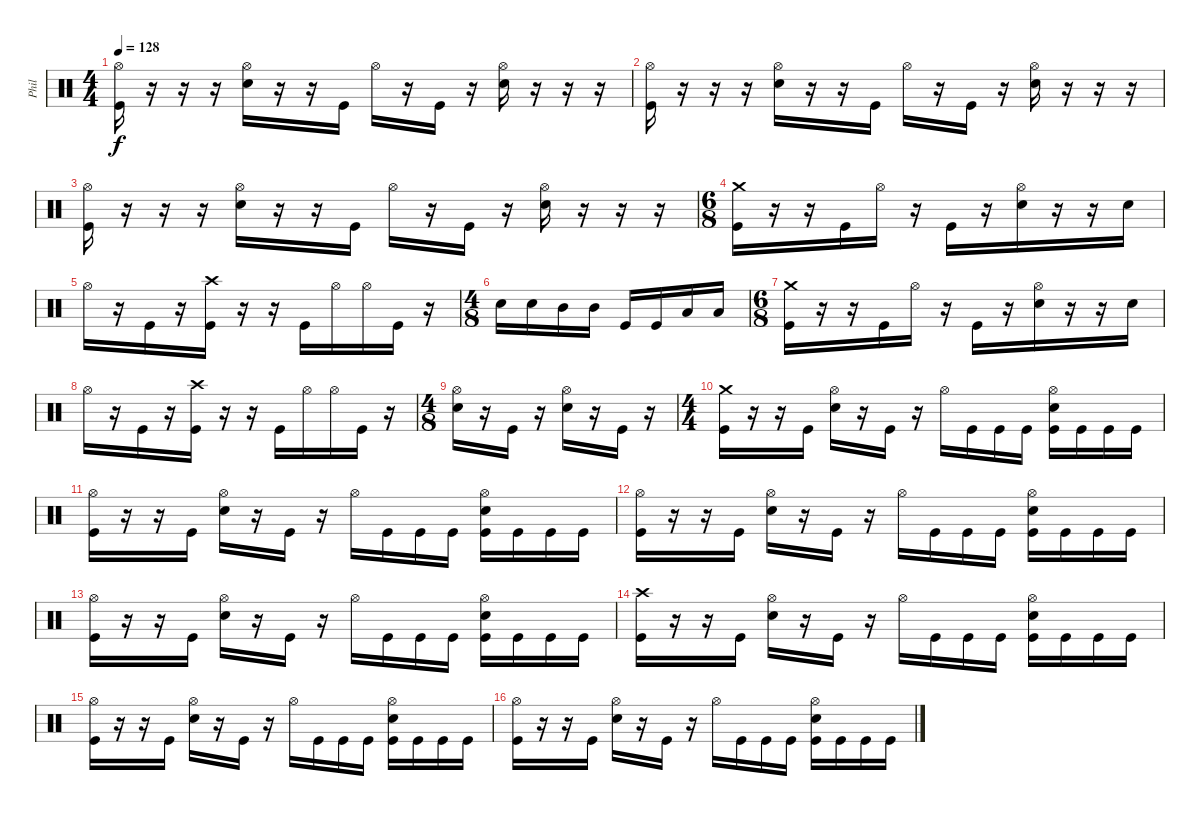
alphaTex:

\track ("Phil" "Phil") {instrument percussion}
\staff {score}
\articulation defaults
\ts (4 4)
\tempo 128
\clef neutral
\ks c
("Hi-Hat (open)" "Kick (hit)").16{dy f} r.16 r.16 r.16 ("Hi-Hat (open)" "Electric Snare (hit)").16 r.16 r.16 "Kick (hit)".16 "Hi-Hat (open)".16 r.16 "Kick (hit)".16 r.16 ("Hi-Hat (open)" "Electric Snare (hit)").16 r.16 r.16 r.16 |
("Hi-Hat (open)" "Kick (hit)").16 r.16 r.16 r.16 ("Hi-Hat (open)" "Electric Snare (hit)").16 r.16 r.16 "Kick (hit)".16 "Hi-Hat (open)".16 r.16 "Kick (hit)".16 r.16 ("Hi-Hat (open)" "Electric Snare (hit)").16 r.16 r.16 r.16 |
("Hi-Hat (open)" "Kick (hit)").16 r.16 r.16 r.16 ("Hi-Hat (open)" "Electric Snare (hit)").16 r.16 r.16 "Kick (hit)".16 "Hi-Hat (open)".16 r.16 "Kick (hit)".16 r.16 ("Hi-Hat (open)" "Electric Snare (hit)").16 r.16 r.16 r.16 |
\ts (6 8)
("Crash medium (hit)" "Kick (hit)").16 r.16 r.16 "Kick (hit)".16 "Hi-Hat (open)".16 r.16 "Kick (hit)".16 r.16 ("Hi-Hat (open)" "Electric Snare (hit)").16 r.16 r.16 "Electric Snare (hit)".16 |
"Hi-Hat (open)".16 r.16 "Kick (hit)".16 r.16 ("Crash high (hit)" "Kick (hit)").16 r.16 r.16 "Kick (hit)".16 "Hi-Hat (open)".16 "Hi-Hat (open)".16 "Kick (hit)".16 r.16 |
\ts (4 8)
"Electric Snare (hit)".16 "Electric Snare (hit)".16 "Mid Tom (hit)".16 "Mid Tom (hit)".16 "Kick (hit)".16 "Kick (hit)".16 "Low Floor Tom (hit)".16 "Low Floor Tom (hit)".16 |
\ts (6 8)
("Crash medium (hit)" "Kick (hit)").16 r.16 r.16 "Kick (hit)".16 "Hi-Hat (open)".16 r.16 "Kick (hit)".16 r.16 ("Hi-Hat (open)" "Electric Snare (hit)").16 r.16 r.16 "Electric Snare (hit)".16 |
"Hi-Hat (open)".16 r.16 "Kick (hit)".16 r.16 ("Crash high (hit)" "Kick (hit)").16 r.16 r.16 "Kick (hit)".16 "Hi-Hat (open)".16 "Hi-Hat (open)".16 "Kick (hit)".16 r.16 |
\ts (4 8)
("Hi-Hat (open)" "Electric Snare (hit)").16 r.16 "Kick (hit)".16 r.16 ("Hi-Hat (open)" "Electric Snare (hit)").16 r.16 "Kick (hit)".16 r.16 |
\ts (4 4)
("Crash medium (hit)" "Kick (hit)").16 r.16 r.16 "Kick (hit)".16 ("Hi-Hat (open)" "Electric Snare (hit)").16 r.16 "Kick (hit)".16 r.16 "Hi-Hat (open)".16 "Kick (hit)".16 "Kick (hit)".16 "Kick (hit)".16 ("Hi-Hat (open)" "Electric Snare (hit)" "Kick (hit)").16 "Kick (hit)".16 "Kick (hit)".16 "Kick (hit)".16 |
("Hi-Hat (open)" "Kick (hit)").16 r.16 r.16 "Kick (hit)".16 ("Hi-Hat (open)" "Electric Snare (hit)").16 r.16 "Kick (hit)".16 r.16 "Hi-Hat (open)".16 "Kick (hit)".16 "Kick (hit)".16 "Kick (hit)".16 ("Hi-Hat (open)" "Electric Snare (hit)" "Kick (hit)").16 "Kick (hit)".16 "Kick (hit)".16 "Kick (hit)".16 |
("Hi-Hat (open)" "Kick (hit)").16 r.16 r.16 "Kick (hit)".16 ("Hi-Hat (open)" "Electric Snare (hit)").16 r.16 "Kick (hit)".16 r.16 "Hi-Hat (open)".16 "Kick (hit)".16 "Kick (hit)".16 "Kick (hit)".16 ("Hi-Hat (open)" "Electric Snare (hit)" "Kick (hit)").16 "Kick (hit)".16 "Kick (hit)".16 "Kick (hit)".16 |
("Hi-Hat (open)" "Kick (hit)").16 r.16 r.16 "Kick (hit)".16 ("Hi-Hat (open)" "Electric Snare (hit)").16 r.16 "Kick (hit)".16 r.16 "Hi-Hat (open)".16 "Kick (hit)".16 "Kick (hit)".16 "Kick (hit)".16 ("Hi-Hat (open)" "Electric Snare (hit)" "Kick (hit)").16 "Kick (hit)".16 "Kick (hit)".16 "Kick (hit)".16 |
("Crash high (hit)" "Kick (hit)").16 r.16 r.16 "Kick (hit)".16 ("Hi-Hat (open)" "Electric Snare (hit)").16 r.16 "Kick (hit)".16 r.16 "Hi-Hat (open)".16 "Kick (hit)".16 "Kick (hit)".16 "Kick (hit)".16 ("Hi-Hat (open)" "Electric Snare (hit)" "Kick (hit)").16 "Kick (hit)".16 "Kick (hit)".16 "Kick (hit)".16 |
("Hi-Hat (open)" "Kick (hit)").16 r.16 r.16 "Kick (hit)".16 ("Hi-Hat (open)" "Electric Snare (hit)").16 r.16 "Kick (hit)".16 r.16 "Hi-Hat (open)".16 "Kick (hit)".16 "Kick (hit)".16 "Kick (hit)".16 ("Hi-Hat (open)" "Electric Snare (hit)" "Kick (hit)").16 "Kick (hit)".16 "Kick (hit)".16 "Kick (hit)".16 |
("Hi-Hat (open)" "Kick (hit)").16 r.16 r.16 "Kick (hit)".16 ("Hi-Hat (open)" "Electric Snare (hit)").16 r.16 "Kick (hit)".16 r.16 "Hi-Hat (open)".16 "Kick (hit)".16 "Kick (hit)".16 "Kick (hit)".16 ("Hi-Hat (open)" "Electric Snare (hit)" "Kick (hit)").16 "Kick (hit)".16 "Kick (hit)".16 "Kick (hit)".16
